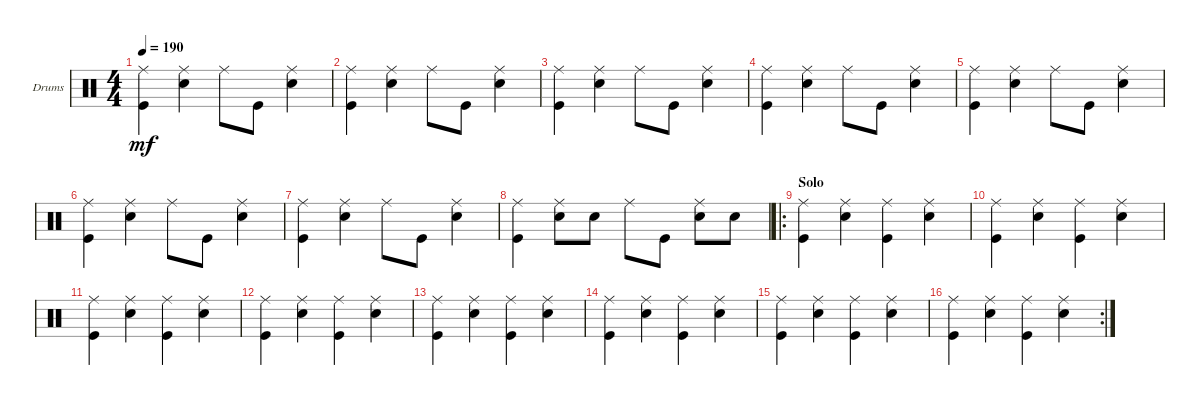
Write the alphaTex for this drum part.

\defaultSystemsLayout 4
\bracketExtendMode groupsimilarinstruments
\firstSystemTrackNameOrientation horizontal
\otherSystemsTrackNameOrientation horizontal
\track ("Drumkit" "Drums") {instrument percussion}
\staff {score}
\articulation defaults
\ts (4 4)
\tempo 190
\clef neutral
\ks c
("Kick (hit)" "Ride (middle)").4{dy mf} ("Snare (hit) 2" "Ride (middle)").4 "Ride (middle)".8 "Kick (hit)".8 ("Ride (middle)" "Snare (hit) 2").4 |
("Kick (hit)" "Ride (middle)").4 ("Snare (hit) 2" "Ride (middle)").4 "Ride (middle)".8 "Kick (hit)".8 ("Ride (middle)" "Snare (hit) 2").4 |
("Kick (hit)" "Ride (middle)").4 ("Snare (hit) 2" "Ride (middle)").4 "Ride (middle)".8 "Kick (hit)".8 ("Ride (middle)" "Snare (hit) 2").4 |
("Kick (hit)" "Ride (middle)").4 ("Snare (hit) 2" "Ride (middle)").4 "Ride (middle)".8 "Kick (hit)".8 ("Ride (middle)" "Snare (hit) 2").4 |
("Kick (hit)" "Ride (middle)").4 ("Snare (hit) 2" "Ride (middle)").4 "Ride (middle)".8 "Kick (hit)".8 ("Ride (middle)" "Snare (hit) 2").4 |
("Kick (hit)" "Ride (middle)").4 ("Snare (hit) 2" "Ride (middle)").4 "Ride (middle)".8 "Kick (hit)".8 ("Ride (middle)" "Snare (hit) 2").4 |
("Kick (hit)" "Ride (middle)").4 ("Snare (hit) 2" "Ride (middle)").4 "Ride (middle)".8 "Kick (hit)".8 ("Ride (middle)" "Snare (hit) 2").4 |
("Kick (hit)" "Ride (middle)").4 ("Snare (hit) 2" "Ride (middle)").8 "Snare (hit) 2".8 "Ride (middle)".8 "Kick (hit)".8 ("Ride (middle)" "Snare (hit) 2").8 "Snare (hit) 2".8 |
\ro
\section ("" "Solo")
("Kick (hit)" "Ride (middle)").4 ("Snare (hit) 2" "Ride (middle)").4 ("Ride (middle)" "Kick (hit)").4 ("Ride (middle)" "Snare (hit) 2").4 |
("Kick (hit)" "Ride (middle)").4 ("Snare (hit) 2" "Ride (middle)").4 ("Ride (middle)" "Kick (hit)").4 ("Ride (middle)" "Snare (hit) 2").4 |
("Kick (hit)" "Ride (middle)").4 ("Snare (hit) 2" "Ride (middle)").4 ("Ride (middle)" "Kick (hit)").4 ("Ride (middle)" "Snare (hit) 2").4 |
("Kick (hit)" "Ride (middle)").4 ("Snare (hit) 2" "Ride (middle)").4 ("Ride (middle)" "Kick (hit)").4 ("Ride (middle)" "Snare (hit) 2").4 |
("Kick (hit)" "Ride (middle)").4 ("Snare (hit) 2" "Ride (middle)").4 ("Ride (middle)" "Kick (hit)").4 ("Ride (middle)" "Snare (hit) 2").4 |
("Kick (hit)" "Ride (middle)").4 ("Snare (hit) 2" "Ride (middle)").4 ("Ride (middle)" "Kick (hit)").4 ("Ride (middle)" "Snare (hit) 2").4 |
("Kick (hit)" "Ride (middle)").4 ("Snare (hit) 2" "Ride (middle)").4 ("Ride (middle)" "Kick (hit)").4 ("Ride (middle)" "Snare (hit) 2").4 |
\rc 2
("Kick (hit)" "Ride (middle)").4 ("Snare (hit) 2" "Ride (middle)").4 ("Ride (middle)" "Kick (hit)").4 ("Ride (middle)" "Snare (hit) 2").4
